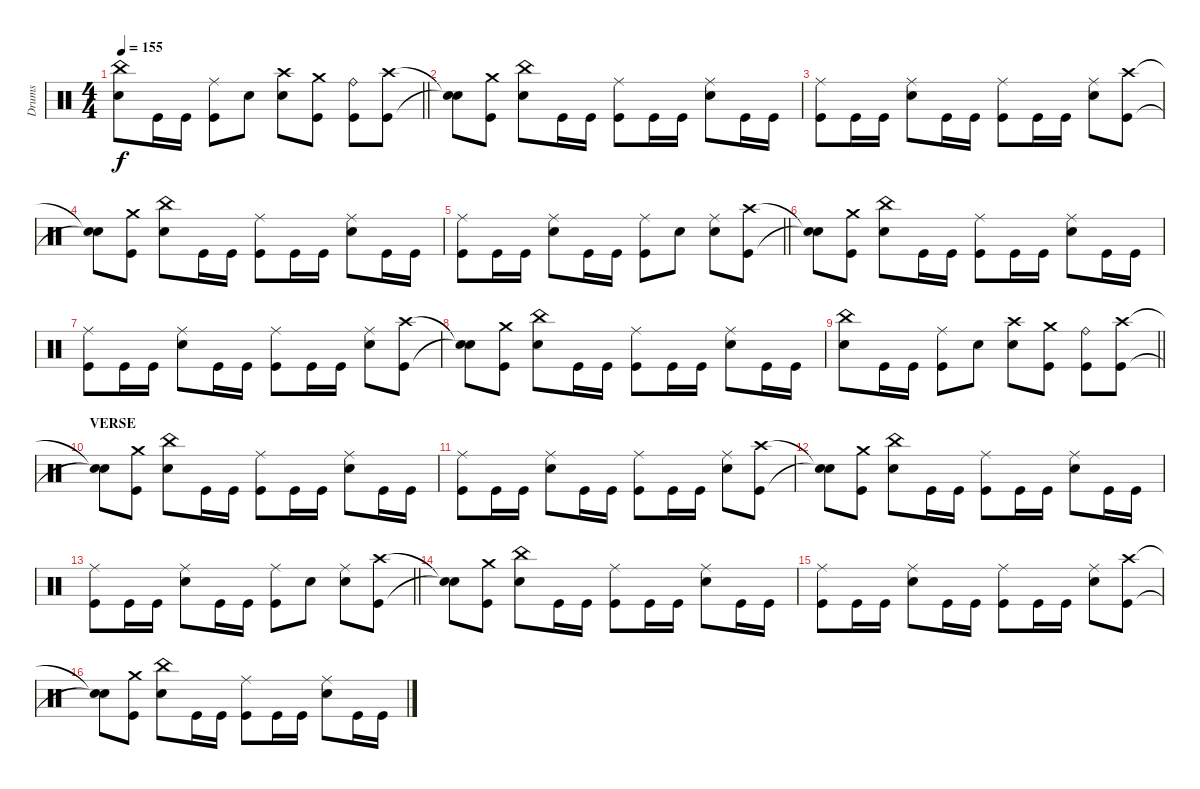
\track ("Drums" "Drums") {instrument percussion}
\staff
\articulation defaults
\ts (4 4)
\tempo 155
\clef neutral
\barLineRight lightlight
\ks c
("China (hit)" "Electric Snare (hit)").8{dy f} "Kick (hit)".16 "Kick (hit)".16 ("Ride (middle)" "Kick (hit)").8 "Electric Snare (hit)".8 ("Crash high (hit)" "Electric Snare (hit)").8 ("Crash medium (hit)" "Kick (hit)").8 ("Ride (bell)" "Kick (hit)").8 ("Crash high (hit)" "Kick (hit)").8 |
("Snare (hit)"{t} "Snare (hit)"{t}).8 ("Crash medium (hit)" "Kick (hit)").8 ("China (hit)" "Electric Snare (hit)").8 "Kick (hit)".16 "Kick (hit)".16 ("Ride (middle)" "Kick (hit)").8 "Kick (hit)".16 "Kick (hit)".16 ("Ride (middle)" "Electric Snare (hit)").8 "Kick (hit)".16 "Kick (hit)".16 |
("Ride (middle)" "Kick (hit)").8 "Kick (hit)".16 "Kick (hit)".16 ("Ride (middle)" "Electric Snare (hit)").8 "Kick (hit)".16 "Kick (hit)".16 ("Ride (middle)" "Kick (hit)").8 "Kick (hit)".16 "Kick (hit)".16 ("Ride (middle)" "Electric Snare (hit)").8 ("Crash high (hit)" "Kick (hit)").8 |
("Snare (hit)"{t} "Snare (hit)"{t}).8 ("Crash medium (hit)" "Kick (hit)").8 ("China (hit)" "Electric Snare (hit)").8 "Kick (hit)".16 "Kick (hit)".16 ("Ride (middle)" "Kick (hit)").8 "Kick (hit)".16 "Kick (hit)".16 ("Ride (middle)" "Electric Snare (hit)").8 "Kick (hit)".16 "Kick (hit)".16 |
\barLineRight lightlight
("Ride (middle)" "Kick (hit)").8 "Kick (hit)".16 "Kick (hit)".16 ("Ride (middle)" "Electric Snare (hit)").8 "Kick (hit)".16 "Kick (hit)".16 ("Ride (middle)" "Kick (hit)").8 "Electric Snare (hit)".8 ("Ride (middle)" "Electric Snare (hit)").8 ("Crash high (hit)" "Kick (hit)").8 |
("Snare (hit)"{t} "Snare (hit)"{t}).8 ("Crash medium (hit)" "Kick (hit)").8 ("China (hit)" "Electric Snare (hit)").8 "Kick (hit)".16 "Kick (hit)".16 ("Ride (middle)" "Kick (hit)").8 "Kick (hit)".16 "Kick (hit)".16 ("Ride (middle)" "Electric Snare (hit)").8 "Kick (hit)".16 "Kick (hit)".16 |
("Ride (middle)" "Kick (hit)").8 "Kick (hit)".16 "Kick (hit)".16 ("Ride (middle)" "Electric Snare (hit)").8 "Kick (hit)".16 "Kick (hit)".16 ("Ride (middle)" "Kick (hit)").8 "Kick (hit)".16 "Kick (hit)".16 ("Ride (middle)" "Electric Snare (hit)").8 ("Crash high (hit)" "Kick (hit)").8 |
("Snare (hit)"{t} "Snare (hit)"{t}).8 ("Crash medium (hit)" "Kick (hit)").8 ("China (hit)" "Electric Snare (hit)").8 "Kick (hit)".16 "Kick (hit)".16 ("Ride (middle)" "Kick (hit)").8 "Kick (hit)".16 "Kick (hit)".16 ("Ride (middle)" "Electric Snare (hit)").8 "Kick (hit)".16 "Kick (hit)".16 |
\barLineRight lightlight
("China (hit)" "Electric Snare (hit)").8 "Kick (hit)".16 "Kick (hit)".16 ("Ride (middle)" "Kick (hit)").8 "Electric Snare (hit)".8 ("Crash high (hit)" "Electric Snare (hit)").8 ("Crash medium (hit)" "Kick (hit)").8 ("Ride (bell)" "Kick (hit)").8 ("Crash high (hit)" "Kick (hit)").8 |
\section ("" "VERSE")
("Snare (hit)"{t} "Snare (hit)"{t}).8 ("Crash medium (hit)" "Kick (hit)").8 ("China (hit)" "Electric Snare (hit)").8 "Kick (hit)".16 "Kick (hit)".16 ("Ride (middle)" "Kick (hit)").8 "Kick (hit)".16 "Kick (hit)".16 ("Ride (middle)" "Electric Snare (hit)").8 "Kick (hit)".16 "Kick (hit)".16 |
("Ride (middle)" "Kick (hit)").8 "Kick (hit)".16 "Kick (hit)".16 ("Ride (middle)" "Electric Snare (hit)").8 "Kick (hit)".16 "Kick (hit)".16 ("Ride (middle)" "Kick (hit)").8 "Kick (hit)".16 "Kick (hit)".16 ("Ride (middle)" "Electric Snare (hit)").8 ("Crash high (hit)" "Kick (hit)").8 |
("Snare (hit)"{t} "Snare (hit)"{t}).8 ("Crash medium (hit)" "Kick (hit)").8 ("China (hit)" "Electric Snare (hit)").8 "Kick (hit)".16 "Kick (hit)".16 ("Ride (middle)" "Kick (hit)").8 "Kick (hit)".16 "Kick (hit)".16 ("Ride (middle)" "Electric Snare (hit)").8 "Kick (hit)".16 "Kick (hit)".16 |
\barLineRight lightlight
("Ride (middle)" "Kick (hit)").8 "Kick (hit)".16 "Kick (hit)".16 ("Ride (middle)" "Electric Snare (hit)").8 "Kick (hit)".16 "Kick (hit)".16 ("Ride (middle)" "Kick (hit)").8 "Electric Snare (hit)".8 ("Ride (middle)" "Electric Snare (hit)").8 ("Crash high (hit)" "Kick (hit)").8 |
("Snare (hit)"{t} "Snare (hit)"{t}).8 ("Crash medium (hit)" "Kick (hit)").8 ("China (hit)" "Electric Snare (hit)").8 "Kick (hit)".16 "Kick (hit)".16 ("Ride (middle)" "Kick (hit)").8 "Kick (hit)".16 "Kick (hit)".16 ("Ride (middle)" "Electric Snare (hit)").8 "Kick (hit)".16 "Kick (hit)".16 |
("Ride (middle)" "Kick (hit)").8 "Kick (hit)".16 "Kick (hit)".16 ("Ride (middle)" "Electric Snare (hit)").8 "Kick (hit)".16 "Kick (hit)".16 ("Ride (middle)" "Kick (hit)").8 "Kick (hit)".16 "Kick (hit)".16 ("Ride (middle)" "Electric Snare (hit)").8 ("Crash high (hit)" "Kick (hit)").8 |
("Snare (hit)"{t} "Snare (hit)"{t}).8 ("Crash medium (hit)" "Kick (hit)").8 ("China (hit)" "Electric Snare (hit)").8 "Kick (hit)".16 "Kick (hit)".16 ("Ride (middle)" "Kick (hit)").8 "Kick (hit)".16 "Kick (hit)".16 ("Ride (middle)" "Electric Snare (hit)").8 "Kick (hit)".16 "Kick (hit)".16
